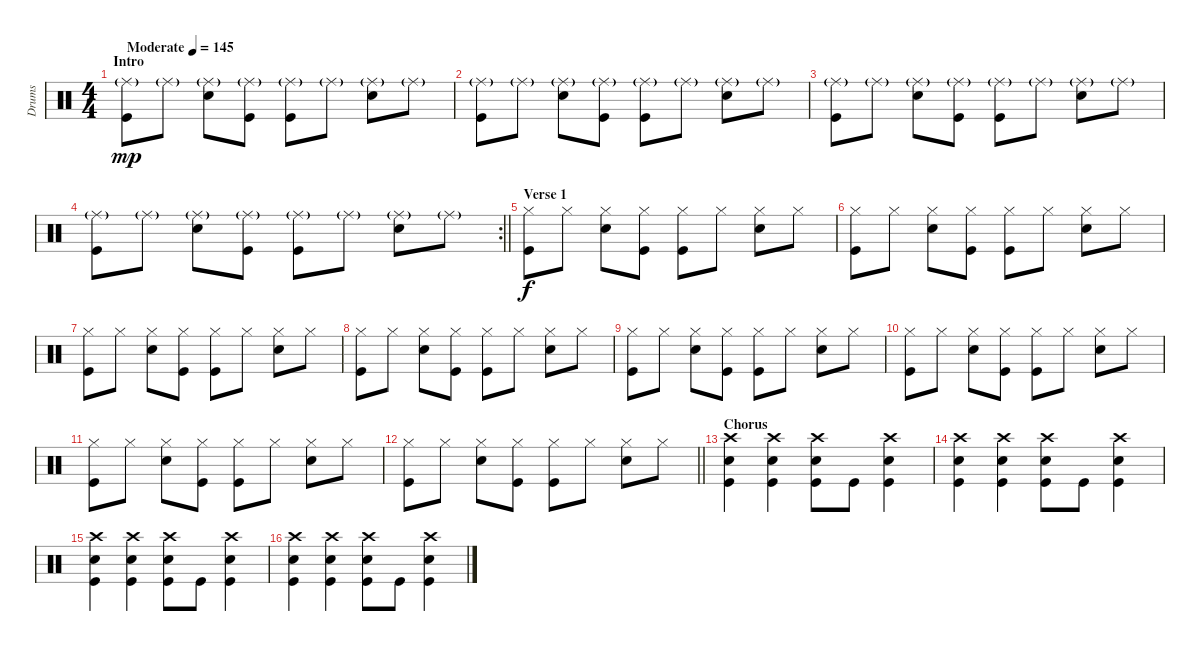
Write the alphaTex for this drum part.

\track ("Drums" "Drums") {instrument percussion}
\staff {score}
\articulation defaults
\ts (4 4)
\section ("" "Intro")
\tempo (145 "Moderate")
\clef neutral
\ks c
("Ride (middle)"{g} "Kick (hit)").8{dy mp} "Ride (middle)"{g}.8 ("Ride (middle)"{g} "Snare (hit) 2").8 ("Ride (middle)"{g} "Kick (hit)").8 ("Ride (middle)"{g} "Kick (hit)").8 "Ride (middle)"{g}.8 ("Ride (middle)"{g} "Snare (hit) 2").8 "Ride (middle)"{g}.8 |
("Ride (middle)"{g} "Kick (hit)").8 "Ride (middle)"{g}.8 ("Ride (middle)"{g} "Snare (hit) 2").8 ("Ride (middle)"{g} "Kick (hit)").8 ("Ride (middle)"{g} "Kick (hit)").8 "Ride (middle)"{g}.8 ("Ride (middle)"{g} "Snare (hit) 2").8 "Ride (middle)"{g}.8 |
("Ride (middle)"{g} "Kick (hit)").8 "Ride (middle)"{g}.8 ("Ride (middle)"{g} "Snare (hit) 2").8 ("Ride (middle)"{g} "Kick (hit)").8 ("Ride (middle)"{g} "Kick (hit)").8 "Ride (middle)"{g}.8 ("Ride (middle)"{g} "Snare (hit) 2").8 "Ride (middle)"{g}.8 |
\rc 2
\barLineRight lightlight
("Ride (middle)"{g} "Kick (hit)").8 "Ride (middle)"{g}.8 ("Ride (middle)"{g} "Snare (hit) 2").8 ("Ride (middle)"{g} "Kick (hit)").8 ("Ride (middle)"{g} "Kick (hit)").8 "Ride (middle)"{g}.8 ("Ride (middle)"{g} "Snare (hit) 2").8 "Ride (middle)"{g}.8 |
\section ("" "Verse 1")
("Hi-Hat (closed)" "Kick (hit)").8{dy f} "Hi-Hat (closed)".8 ("Hi-Hat (closed)" "Snare (hit) 2").8 ("Hi-Hat (closed)" "Kick (hit)").8 ("Hi-Hat (closed)" "Kick (hit)").8 "Hi-Hat (closed)".8 ("Hi-Hat (closed)" "Snare (hit) 2").8 "Hi-Hat (closed)".8 |
("Hi-Hat (closed)" "Kick (hit)").8 "Hi-Hat (closed)".8 ("Hi-Hat (closed)" "Snare (hit) 2").8 ("Hi-Hat (closed)" "Kick (hit)").8 ("Hi-Hat (closed)" "Kick (hit)").8 "Hi-Hat (closed)".8 ("Hi-Hat (closed)" "Snare (hit) 2").8 "Hi-Hat (closed)".8 |
("Hi-Hat (closed)" "Kick (hit)").8 "Hi-Hat (closed)".8 ("Hi-Hat (closed)" "Snare (hit) 2").8 ("Hi-Hat (closed)" "Kick (hit)").8 ("Hi-Hat (closed)" "Kick (hit)").8 "Hi-Hat (closed)".8 ("Hi-Hat (closed)" "Snare (hit) 2").8 "Hi-Hat (closed)".8 |
("Hi-Hat (closed)" "Kick (hit)").8 "Hi-Hat (closed)".8 ("Hi-Hat (closed)" "Snare (hit) 2").8 ("Hi-Hat (closed)" "Kick (hit)").8 ("Hi-Hat (closed)" "Kick (hit)").8 "Hi-Hat (closed)".8 ("Hi-Hat (closed)" "Snare (hit) 2").8 "Hi-Hat (closed)".8 |
("Hi-Hat (closed)" "Kick (hit)").8 "Hi-Hat (closed)".8 ("Hi-Hat (closed)" "Snare (hit) 2").8 ("Hi-Hat (closed)" "Kick (hit)").8 ("Hi-Hat (closed)" "Kick (hit)").8 "Hi-Hat (closed)".8 ("Hi-Hat (closed)" "Snare (hit) 2").8 "Hi-Hat (closed)".8 |
("Hi-Hat (closed)" "Kick (hit)").8 "Hi-Hat (closed)".8 ("Hi-Hat (closed)" "Snare (hit) 2").8 ("Hi-Hat (closed)" "Kick (hit)").8 ("Hi-Hat (closed)" "Kick (hit)").8 "Hi-Hat (closed)".8 ("Hi-Hat (closed)" "Snare (hit) 2").8 "Hi-Hat (closed)".8 |
("Hi-Hat (closed)" "Kick (hit)").8 "Hi-Hat (closed)".8 ("Hi-Hat (closed)" "Snare (hit) 2").8 ("Hi-Hat (closed)" "Kick (hit)").8 ("Hi-Hat (closed)" "Kick (hit)").8 "Hi-Hat (closed)".8 ("Hi-Hat (closed)" "Snare (hit) 2").8 "Hi-Hat (closed)".8 |
\barLineRight lightlight
("Hi-Hat (closed)" "Kick (hit)").8 "Hi-Hat (closed)".8 ("Hi-Hat (closed)" "Snare (hit) 2").8 ("Hi-Hat (closed)" "Kick (hit)").8 ("Hi-Hat (closed)" "Kick (hit)").8 "Hi-Hat (closed)".8 ("Hi-Hat (closed)" "Snare (hit) 2").8 "Hi-Hat (closed)".8 |
\section ("" "Chorus")
("Crash high (hit)" "Snare (hit) 2" "Kick (hit)").4 ("Crash high (hit)" "Snare (hit) 2" "Kick (hit)").4 ("Crash high (hit)" "Snare (hit) 2" "Kick (hit)").8 "Kick (hit)".8 ("Crash high (hit)" "Snare (hit) 2" "Kick (hit)").4 |
("Crash high (hit)" "Snare (hit) 2" "Kick (hit)").4 ("Crash high (hit)" "Snare (hit) 2" "Kick (hit)").4 ("Crash high (hit)" "Snare (hit) 2" "Kick (hit)").8 "Kick (hit)".8 ("Crash high (hit)" "Snare (hit) 2" "Kick (hit)").4 |
("Crash high (hit)" "Snare (hit) 2" "Kick (hit)").4 ("Crash high (hit)" "Snare (hit) 2" "Kick (hit)").4 ("Crash high (hit)" "Snare (hit) 2" "Kick (hit)").8 "Kick (hit)".8 ("Crash high (hit)" "Snare (hit) 2" "Kick (hit)").4 |
("Crash high (hit)" "Snare (hit) 2" "Kick (hit)").4 ("Crash high (hit)" "Snare (hit) 2" "Kick (hit)").4 ("Crash high (hit)" "Snare (hit) 2" "Kick (hit)").8 "Kick (hit)".8 ("Crash high (hit)" "Snare (hit) 2" "Kick (hit)").4
